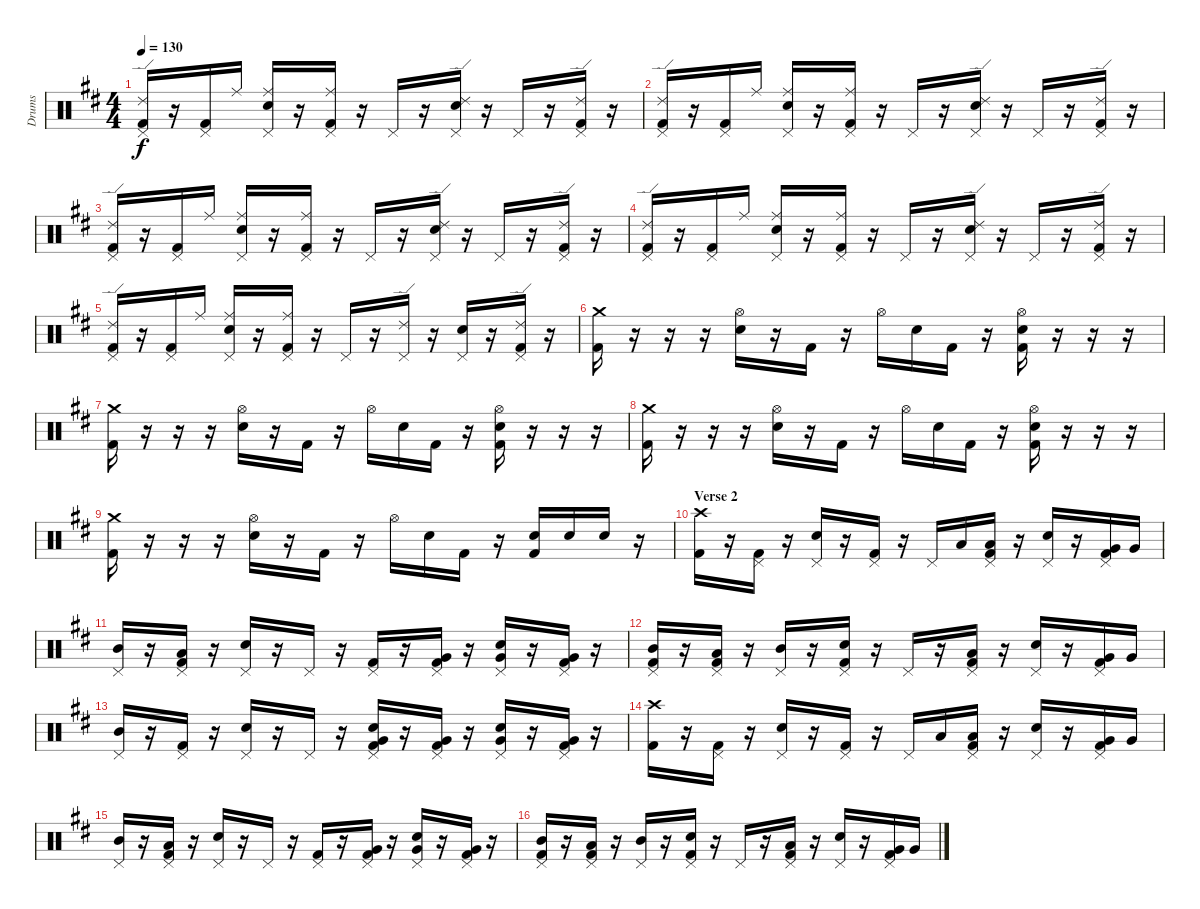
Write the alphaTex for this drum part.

\track ("Drums" "Drums") {instrument percussion}
\staff {score}
\articulation defaults
\ts (4 4)
\tempo 130
\clef neutral
\ks d
("Ride (edge) 2" "Pedal Hi-Hat (hit)" "Kick (hit) 2").16{dy f} r.16 ("Pedal Hi-Hat (hit)" "Kick (hit) 2").16 "Ride (middle)".16 ("Ride (middle)" "Pedal Hi-Hat (hit)" "Electric Snare (hit)").16 r.16 ("Ride (middle)" "Pedal Hi-Hat (hit)" "Kick (hit) 2").16 r.16 "Pedal Hi-Hat (hit)".16 r.16 ("Ride (edge) 2" "Pedal Hi-Hat (hit)" "Electric Snare (hit)").16 r.16 "Pedal Hi-Hat (hit)".16 r.16 ("Ride (edge) 2" "Pedal Hi-Hat (hit)" "Kick (hit) 2").16 r.16 |
("Ride (edge) 2" "Pedal Hi-Hat (hit)" "Kick (hit) 2").16 r.16 ("Pedal Hi-Hat (hit)" "Kick (hit) 2").16 "Ride (middle)".16 ("Ride (middle)" "Pedal Hi-Hat (hit)" "Electric Snare (hit)").16 r.16 ("Ride (middle)" "Pedal Hi-Hat (hit)" "Kick (hit) 2").16 r.16 "Pedal Hi-Hat (hit)".16 r.16 ("Ride (edge) 2" "Pedal Hi-Hat (hit)" "Electric Snare (hit)").16 r.16 "Pedal Hi-Hat (hit)".16 r.16 ("Ride (edge) 2" "Pedal Hi-Hat (hit)" "Kick (hit) 2").16 r.16 |
("Ride (edge) 2" "Pedal Hi-Hat (hit)" "Kick (hit) 2").16 r.16 ("Pedal Hi-Hat (hit)" "Kick (hit) 2").16 "Ride (middle)".16 ("Ride (middle)" "Pedal Hi-Hat (hit)" "Electric Snare (hit)").16 r.16 ("Ride (middle)" "Pedal Hi-Hat (hit)" "Kick (hit) 2").16 r.16 "Pedal Hi-Hat (hit)".16 r.16 ("Ride (edge) 2" "Pedal Hi-Hat (hit)" "Electric Snare (hit)").16 r.16 "Pedal Hi-Hat (hit)".16 r.16 ("Ride (edge) 2" "Pedal Hi-Hat (hit)" "Kick (hit) 2").16 r.16 |
("Ride (edge) 2" "Pedal Hi-Hat (hit)" "Kick (hit) 2").16 r.16 ("Pedal Hi-Hat (hit)" "Kick (hit) 2").16 "Ride (middle)".16 ("Ride (middle)" "Pedal Hi-Hat (hit)" "Electric Snare (hit)").16 r.16 ("Ride (middle)" "Pedal Hi-Hat (hit)" "Kick (hit) 2").16 r.16 "Pedal Hi-Hat (hit)".16 r.16 ("Ride (edge) 2" "Pedal Hi-Hat (hit)" "Electric Snare (hit)").16 r.16 "Pedal Hi-Hat (hit)".16 r.16 ("Ride (edge) 2" "Pedal Hi-Hat (hit)" "Kick (hit) 2").16 r.16 |
("Ride (edge) 2" "Pedal Hi-Hat (hit)" "Kick (hit) 2").16 r.16 ("Pedal Hi-Hat (hit)" "Kick (hit) 2").16 "Ride (middle)".16 ("Ride (middle)" "Pedal Hi-Hat (hit)" "Electric Snare (hit)").16 r.16 ("Ride (middle)" "Pedal Hi-Hat (hit)" "Kick (hit) 2").16 r.16 "Pedal Hi-Hat (hit)".16 r.16 ("Ride (edge) 2" "Pedal Hi-Hat (hit)").16 r.16 ("Pedal Hi-Hat (hit)" "Electric Snare (hit)").16 r.16 ("Ride (edge) 2" "Pedal Hi-Hat (hit)" "Kick (hit) 2").16 r.16 |
("Crash medium (hit)" "Kick (hit) 2").16 r.16 r.16 r.16 ("Hi-Hat (open)" "Electric Snare (hit)").16 r.16 "Kick (hit) 2".16 r.16 "Hi-Hat (open)".16 "Electric Snare (hit)".16 "Kick (hit) 2".16 r.16 ("Hi-Hat (open)" "Electric Snare (hit)" "Kick (hit) 2").16 r.16 r.16 r.16 |
("Crash medium (hit)" "Kick (hit) 2").16 r.16 r.16 r.16 ("Hi-Hat (open)" "Electric Snare (hit)").16 r.16 "Kick (hit) 2".16 r.16 "Hi-Hat (open)".16 "Electric Snare (hit)".16 "Kick (hit) 2".16 r.16 ("Hi-Hat (open)" "Electric Snare (hit)" "Kick (hit) 2").16 r.16 r.16 r.16 |
("Crash medium (hit)" "Kick (hit) 2").16 r.16 r.16 r.16 ("Hi-Hat (open)" "Electric Snare (hit)").16 r.16 "Kick (hit) 2".16 r.16 "Hi-Hat (open)".16 "Electric Snare (hit)".16 "Kick (hit) 2".16 r.16 ("Hi-Hat (open)" "Electric Snare (hit)" "Kick (hit) 2").16 r.16 r.16 r.16 |
("Crash medium (hit)" "Kick (hit) 2").16 r.16 r.16 r.16 ("Hi-Hat (open)" "Electric Snare (hit)").16 r.16 "Kick (hit) 2".16 r.16 "Hi-Hat (open)".16 "Electric Snare (hit)".16 "Kick (hit) 2".16 r.16 ("Electric Snare (hit)" "Kick (hit) 2").16 "Electric Snare (hit)".16 "Electric Snare (hit)".16 r.16 |
\section ("" "Verse 2")
("Crash high (hit)" "Kick (hit) 2").16 r.16 ("Pedal Hi-Hat (hit)" "Kick (hit) 2").16 r.16 ("Pedal Hi-Hat (hit)" "Electric Snare (hit)").16 r.16 ("Pedal Hi-Hat (hit)" "Kick (hit) 2").16 r.16 "Pedal Hi-Hat (hit)".16 "Low Tom (hit)".16 ("Pedal Hi-Hat (hit)" "Low Tom (hit)" "Kick (hit) 2").16 r.16 ("Pedal Hi-Hat (hit)" "Electric Snare (hit)").16 r.16 ("Pedal Hi-Hat (hit)" "Very Low Tom (hit)" "Kick (hit) 2").16 "Very Low Tom (hit)".16 |
("Mid Tom (hit)" "Pedal Hi-Hat (hit)").16 r.16 ("Pedal Hi-Hat (hit)" "Low Tom (hit)" "Kick (hit) 2").16 r.16 ("Pedal Hi-Hat (hit)" "Electric Snare (hit)").16 r.16 "Pedal Hi-Hat (hit)".16 r.16 ("Pedal Hi-Hat (hit)" "Kick (hit) 2").16 r.16 ("Pedal Hi-Hat (hit)" "Very Low Tom (hit)" "Kick (hit) 2").16 r.16 ("Pedal Hi-Hat (hit)" "Electric Snare (hit)" "Very Low Tom (hit)").16 r.16 ("Pedal Hi-Hat (hit)" "Very Low Tom (hit)" "Kick (hit) 2").16 r.16 |
("Mid Tom (hit)" "Pedal Hi-Hat (hit)" "Kick (hit) 2").16 r.16 ("Pedal Hi-Hat (hit)" "Low Tom (hit)" "Kick (hit) 2").16 r.16 ("Mid Tom (hit)" "Pedal Hi-Hat (hit)").16 r.16 ("Pedal Hi-Hat (hit)" "Electric Snare (hit)" "Kick (hit) 2").16 r.16 "Pedal Hi-Hat (hit)".16 r.16 ("Pedal Hi-Hat (hit)" "Low Tom (hit)" "Kick (hit) 2").16 r.16 ("Pedal Hi-Hat (hit)" "Electric Snare (hit)").16 r.16 ("Pedal Hi-Hat (hit)" "Very Low Tom (hit)" "Kick (hit) 2").16 "Very Low Tom (hit)".16 |
("Mid Tom (hit)" "Pedal Hi-Hat (hit)").16 r.16 ("Pedal Hi-Hat (hit)" "Kick (hit) 2").16 r.16 ("Pedal Hi-Hat (hit)" "Electric Snare (hit)").16 r.16 "Pedal Hi-Hat (hit)".16 r.16 ("Pedal Hi-Hat (hit)" "Electric Snare (hit)" "Very Low Tom (hit)" "Kick (hit) 2").16 r.16 ("Pedal Hi-Hat (hit)" "Very Low Tom (hit)" "Kick (hit) 2").16 r.16 ("Pedal Hi-Hat (hit)" "Electric Snare (hit)" "Very Low Tom (hit)").16 r.16 ("Pedal Hi-Hat (hit)" "Very Low Tom (hit)" "Kick (hit) 2").16 r.16 |
("Crash high (hit)" "Kick (hit) 2").16 r.16 ("Pedal Hi-Hat (hit)" "Kick (hit) 2").16 r.16 ("Pedal Hi-Hat (hit)" "Electric Snare (hit)").16 r.16 ("Pedal Hi-Hat (hit)" "Kick (hit) 2").16 r.16 "Pedal Hi-Hat (hit)".16 "Low Tom (hit)".16 ("Pedal Hi-Hat (hit)" "Low Tom (hit)" "Kick (hit) 2").16 r.16 ("Pedal Hi-Hat (hit)" "Electric Snare (hit)").16 r.16 ("Pedal Hi-Hat (hit)" "Very Low Tom (hit)" "Kick (hit) 2").16 "Very Low Tom (hit)".16 |
("Mid Tom (hit)" "Pedal Hi-Hat (hit)").16 r.16 ("Pedal Hi-Hat (hit)" "Low Tom (hit)" "Kick (hit) 2").16 r.16 ("Pedal Hi-Hat (hit)" "Electric Snare (hit)").16 r.16 "Pedal Hi-Hat (hit)".16 r.16 ("Pedal Hi-Hat (hit)" "Kick (hit) 2").16 r.16 ("Pedal Hi-Hat (hit)" "Very Low Tom (hit)" "Kick (hit) 2").16 r.16 ("Pedal Hi-Hat (hit)" "Electric Snare (hit)" "Very Low Tom (hit)").16 r.16 ("Pedal Hi-Hat (hit)" "Very Low Tom (hit)" "Kick (hit) 2").16 r.16 |
("Mid Tom (hit)" "Pedal Hi-Hat (hit)" "Kick (hit) 2").16 r.16 ("Pedal Hi-Hat (hit)" "Low Tom (hit)" "Kick (hit) 2").16 r.16 ("Mid Tom (hit)" "Pedal Hi-Hat (hit)").16 r.16 ("Pedal Hi-Hat (hit)" "Electric Snare (hit)" "Kick (hit) 2").16 r.16 "Pedal Hi-Hat (hit)".16 r.16 ("Pedal Hi-Hat (hit)" "Low Tom (hit)" "Kick (hit) 2").16 r.16 ("Pedal Hi-Hat (hit)" "Electric Snare (hit)").16 r.16 ("Pedal Hi-Hat (hit)" "Very Low Tom (hit)" "Kick (hit) 2").16 "Very Low Tom (hit)".16
